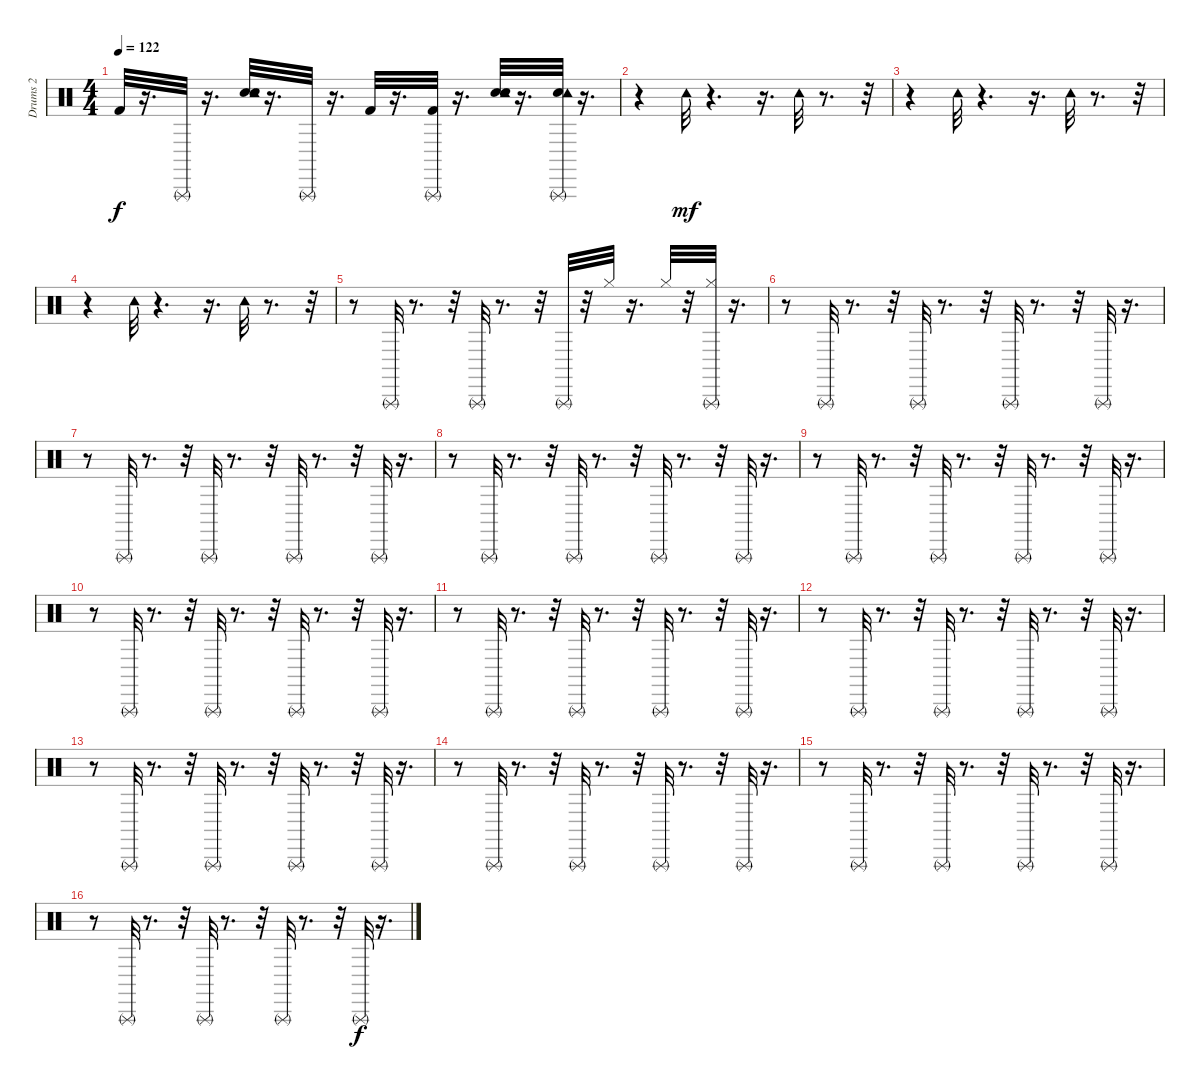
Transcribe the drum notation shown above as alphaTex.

\track ("Drums 2" "Drums 2") {instrument percussion}
\staff {score}
\articulation defaults
\ts (4 4)
\tempo 122
\clef neutral
\ks c "Kick (hit) 2".32{dy f}
r.16{d} "Triangle (rnute)".32 r.16{d} ("Snare (hit) 2" "Electric Snare (hit)" "Tambourine (hit)").32 r.16{d} "Triangle (rnute)".32 r.16{d} "Kick (hit) 2".32 r.16{d} ("Triangle (rnute)" "Kick (hit) 2").32 r.16{d} ("Snare (hit) 2" "Electric Snare (hit)" "Tambourine (hit)").32 r.16{d} ("Triangle (rnute)" "Snare (hit) 2" "Tambourine (hit)").32 r.16{d} |
r.4 "Tambourine (hit)".32{dy mf} r.4{d} r.16{d} "Tambourine (hit)".32 r.8{d} r.32 |
r.4 "Tambourine (hit)".32 r.4{d} r.16{d} "Tambourine (hit)".32 r.8{d} r.32 |
r.4 "Tambourine (hit)".32 r.4{d} r.16{d} "Tambourine (hit)".32 r.8{d} r.32 |
r.8 "Triangle (rnute)".32 r.8{d} r.32 "Triangle (rnute)".32 r.8{d} r.32 "Triangle (rnute)".32 r.32 "Hi-Hat (closed)".32 r.16{d} "Hi-Hat (closed)".32 r.32 ("Hi-Hat (closed)" "Triangle (rnute)").32 r.16{d} |
r.8 "Triangle (rnute)".32 r.8{d} r.32 "Triangle (rnute)".32 r.8{d} r.32 "Triangle (rnute)".32 r.8{d} r.32 "Triangle (rnute)".32 r.16{d} |
r.8 "Triangle (rnute)".32 r.8{d} r.32 "Triangle (rnute)".32 r.8{d} r.32 "Triangle (rnute)".32 r.8{d} r.32 "Triangle (rnute)".32 r.16{d} |
r.8 "Triangle (rnute)".32 r.8{d} r.32 "Triangle (rnute)".32 r.8{d} r.32 "Triangle (rnute)".32 r.8{d} r.32 "Triangle (rnute)".32 r.16{d} |
r.8 "Triangle (rnute)".32 r.8{d} r.32 "Triangle (rnute)".32 r.8{d} r.32 "Triangle (rnute)".32 r.8{d} r.32 "Triangle (rnute)".32 r.16{d} |
r.8 "Triangle (rnute)".32 r.8{d} r.32 "Triangle (rnute)".32 r.8{d} r.32 "Triangle (rnute)".32 r.8{d} r.32 "Triangle (rnute)".32 r.16{d} |
r.8 "Triangle (rnute)".32 r.8{d} r.32 "Triangle (rnute)".32 r.8{d} r.32 "Triangle (rnute)".32 r.8{d} r.32 "Triangle (rnute)".32 r.16{d} |
r.8 "Triangle (rnute)".32 r.8{d} r.32 "Triangle (rnute)".32 r.8{d} r.32 "Triangle (rnute)".32 r.8{d} r.32 "Triangle (rnute)".32 r.16{d} |
r.8 "Triangle (rnute)".32 r.8{d} r.32 "Triangle (rnute)".32 r.8{d} r.32 "Triangle (rnute)".32 r.8{d} r.32 "Triangle (rnute)".32 r.16{d} |
r.8 "Triangle (rnute)".32 r.8{d} r.32 "Triangle (rnute)".32 r.8{d} r.32 "Triangle (rnute)".32 r.8{d} r.32 "Triangle (rnute)".32 r.16{d} |
r.8 "Triangle (rnute)".32 r.8{d} r.32 "Triangle (rnute)".32 r.8{d} r.32 "Triangle (rnute)".32 r.8{d} r.32 "Triangle (rnute)".32 r.16{d} |
r.8 "Triangle (rnute)".32 r.8{d} r.32 "Triangle (rnute)".32 r.8{d} r.32 "Triangle (rnute)".32 r.8{d} r.32 "Triangle (rnute)".32{dy f} r.16{d}
